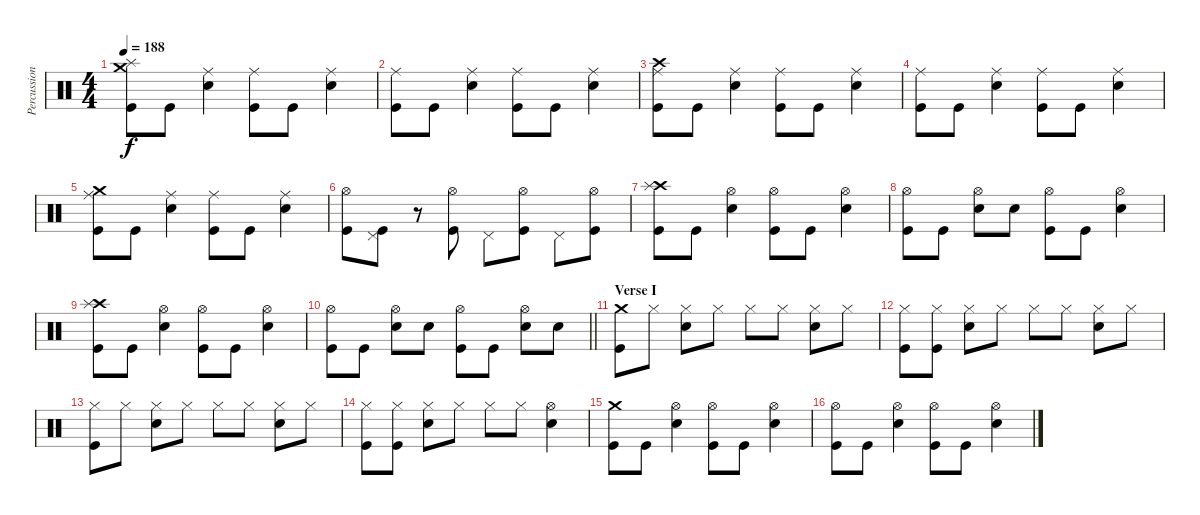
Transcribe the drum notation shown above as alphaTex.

\track ("Percussion" "Percussion") {instrument percussion}
\staff {score}
\articulation defaults
\ts (4 4)
\tempo 188
\clef neutral
\ks c
("Crash medium (hit)" "Splash (hit)" "Kick (hit)").8{dy f} "Kick (hit)".8 ("Ride (middle)" "Electric Snare (hit)").4 ("Ride (middle)" "Kick (hit)").8 "Kick (hit)".8 ("Ride (middle)" "Electric Snare (hit)").4 |
("Ride (middle)" "Kick (hit)").8 "Kick (hit)".8 ("Ride (middle)" "Electric Snare (hit)").4 ("Ride (middle)" "Kick (hit)").8 "Kick (hit)".8 ("Ride (middle)" "Electric Snare (hit)").4 |
("Crash high (hit)" "Ride (middle)" "Kick (hit)").8 "Kick (hit)".8 ("Ride (middle)" "Electric Snare (hit)").4 ("Ride (middle)" "Kick (hit)").8 "Kick (hit)".8 ("Ride (middle)" "Electric Snare (hit)").4 |
("Ride (middle)" "Kick (hit)").8 "Kick (hit)".8 ("Ride (middle)" "Electric Snare (hit)").4 ("Ride (middle)" "Kick (hit)").8 "Kick (hit)".8 ("Ride (middle)" "Electric Snare (hit)").4 |
("Crash medium (hit)" "Ride (middle)" "Kick (hit)").8 "Kick (hit)".8 ("Ride (middle)" "Electric Snare (hit)").4 ("Ride (middle)" "Kick (hit)").8 "Kick (hit)".8 ("Ride (middle)" "Electric Snare (hit)").4 |
("Hi-Hat (open)" "Kick (hit)").8 ("Pedal Hi-Hat (hit)" "Kick (hit)").8 r.8 ("Hi-Hat (open)" "Kick (hit)").8 "Pedal Hi-Hat (hit)".8 ("Hi-Hat (open)" "Kick (hit)").8 "Pedal Hi-Hat (hit)".8 ("Hi-Hat (open)" "Kick (hit)").8 |
("Crash high (hit)" "Splash (hit)" "Kick (hit)").8 "Kick (hit)".8 ("Hi-Hat (open)" "Electric Snare (hit)").4 ("Hi-Hat (open)" "Kick (hit)").8 "Kick (hit)".8 ("Hi-Hat (open)" "Electric Snare (hit)").4 |
("Hi-Hat (open)" "Kick (hit)").8 "Kick (hit)".8 ("Hi-Hat (open)" "Electric Snare (hit)").8 "Electric Snare (hit)".8 ("Hi-Hat (open)" "Kick (hit)").8 "Kick (hit)".8 ("Hi-Hat (open)" "Electric Snare (hit)").4 |
("Crash high (hit)" "Splash (hit)" "Kick (hit)").8 "Kick (hit)".8 ("Hi-Hat (open)" "Electric Snare (hit)").4 ("Hi-Hat (open)" "Kick (hit)").8 "Kick (hit)".8 ("Hi-Hat (open)" "Electric Snare (hit)").4 |
\barLineRight lightlight
("Hi-Hat (open)" "Kick (hit)").8 "Kick (hit)".8 ("Hi-Hat (open)" "Electric Snare (hit)").8 "Electric Snare (hit)".8 ("Hi-Hat (open)" "Kick (hit)").8 "Kick (hit)".8 ("Hi-Hat (open)" "Electric Snare (hit)").8 "Electric Snare (hit)".8 |
\section ("" "Verse I")
("Crash medium (hit)" "Kick (hit)").8 "Hi-Hat (closed)".8 ("Hi-Hat (closed)" "Electric Snare (hit)").8 "Hi-Hat (closed)".8 "Hi-Hat (closed)".8 "Hi-Hat (closed)".8 ("Hi-Hat (closed)" "Electric Snare (hit)").8 "Hi-Hat (closed)".8 |
("Hi-Hat (closed)" "Kick (hit)").8 ("Hi-Hat (closed)" "Kick (hit)").8 ("Hi-Hat (closed)" "Electric Snare (hit)").8 "Hi-Hat (closed)".8 "Hi-Hat (closed)".8 "Hi-Hat (closed)".8 ("Hi-Hat (closed)" "Electric Snare (hit)").8 "Hi-Hat (closed)".8 |
("Hi-Hat (closed)" "Kick (hit)").8 "Hi-Hat (closed)".8 ("Hi-Hat (closed)" "Electric Snare (hit)").8 "Hi-Hat (closed)".8 "Hi-Hat (closed)".8 "Hi-Hat (closed)".8 ("Hi-Hat (closed)" "Electric Snare (hit)").8 "Hi-Hat (closed)".8 |
("Hi-Hat (closed)" "Kick (hit)").8 ("Hi-Hat (closed)" "Kick (hit)").8 ("Hi-Hat (closed)" "Electric Snare (hit)").8 "Hi-Hat (closed)".8 "Hi-Hat (closed)".8 "Hi-Hat (closed)".8 ("Hi-Hat (open)" "Electric Snare (hit)").4 |
("Crash medium (hit)" "Kick (hit)").8 "Kick (hit)".8 ("Hi-Hat (open)" "Electric Snare (hit)").4 ("Hi-Hat (open)" "Kick (hit)").8 "Kick (hit)".8 ("Hi-Hat (open)" "Electric Snare (hit)").4 |
("Hi-Hat (open)" "Kick (hit)").8 "Kick (hit)".8 ("Hi-Hat (open)" "Electric Snare (hit)").4 ("Hi-Hat (open)" "Kick (hit)").8 "Kick (hit)".8 ("Hi-Hat (open)" "Electric Snare (hit)").4
